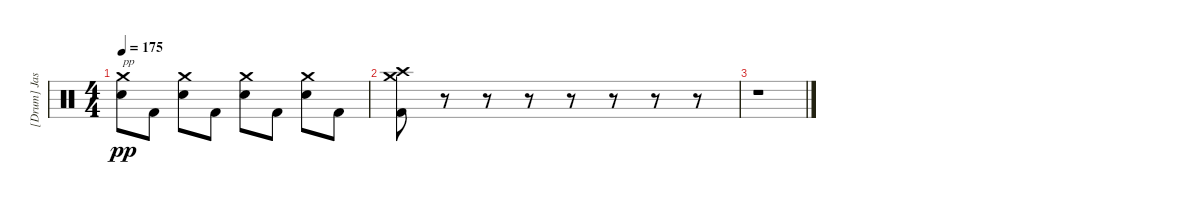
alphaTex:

\track ("[Drum] Jason \"Shakes\" West" "[Drum] Jas") {instrument percussion}
\staff {score}
\articulation defaults
\ts (4 4)
\tempo 175
\clef neutral
\ks c
("Crash medium (hit)" "Electric Snare (hit)").8{txt "pp" dy pp} "Kick (hit) 2".8 ("Crash medium (hit)" "Electric Snare (hit)").8 "Kick (hit) 2".8 ("Crash medium (hit)" "Electric Snare (hit)").8 "Kick (hit) 2".8 ("Crash medium (hit)" "Electric Snare (hit)").8 "Kick (hit) 2".8 |
("Crash high (hit)" "Crash medium (hit)" "Kick (hit) 2").8 r.8 r.8 r.8 r.8 r.8 r.8 r.8 |
r.1
